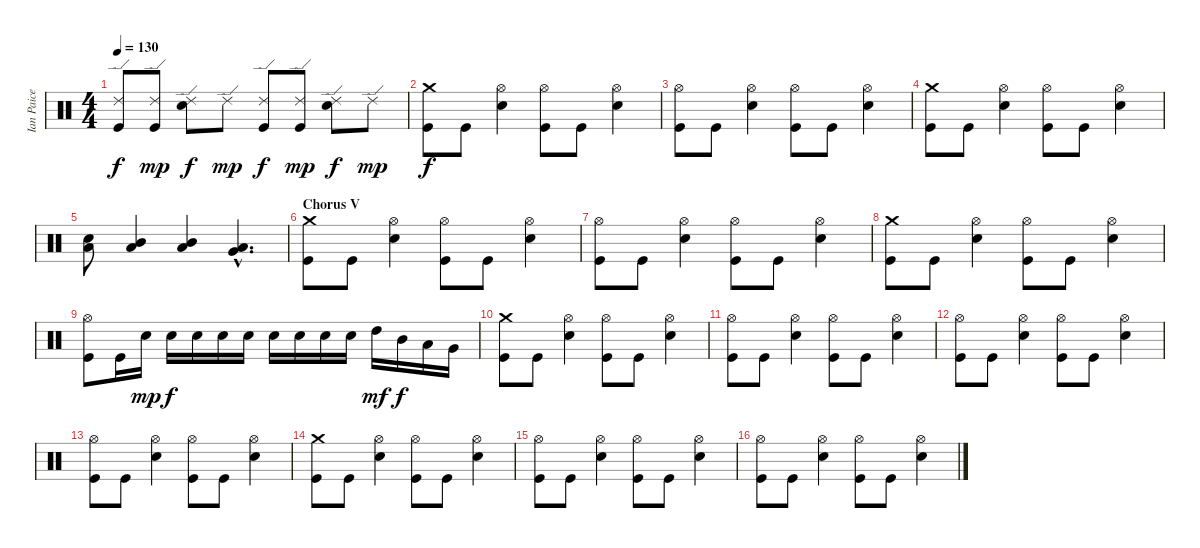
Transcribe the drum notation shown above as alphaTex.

\track ("Ian Paice - Drums" "Ian Paice ") {instrument percussion}
\staff {score}
\articulation defaults
\ts (4 4)
\tempo 130
\clef neutral
\ks c
("Ride (edge) 2" "Kick (hit)").8{dy f} ("Ride (edge) 2" "Kick (hit)").8{dy mp} ("Ride (edge) 2" "Snare (hit) 2").8{dy f} "Ride (edge) 2".8{dy mp} ("Ride (edge) 2" "Kick (hit)").8{dy f} ("Ride (edge) 2" "Kick (hit)").8{dy mp} ("Ride (edge) 2" "Snare (hit) 2").8{dy f} "Ride (edge) 2".8{dy mp} |
("Crash medium (hit)" "Kick (hit)").8{dy f} "Kick (hit)".8 ("Hi-Hat (open)" "Snare (hit) 2").4 ("Hi-Hat (open)" "Kick (hit)").8 "Kick (hit)".8 ("Hi-Hat (open)" "Snare (hit) 2").4 |
("Hi-Hat (open)" "Kick (hit)").8 "Kick (hit)".8 ("Hi-Hat (open)" "Snare (hit) 2").4 ("Hi-Hat (open)" "Kick (hit)").8 "Kick (hit)".8 ("Hi-Hat (open)" "Snare (hit) 2").4 |
("Crash medium (hit)" "Kick (hit)").8 "Kick (hit)".8 ("Hi-Hat (open)" "Snare (hit) 2").4 ("Hi-Hat (open)" "Kick (hit)").8 "Kick (hit)".8 ("Hi-Hat (open)" "Snare (hit) 2").4 |
("Low Tom (hit)" "Snare (hit) 2").8 ("Low Tom (hit)" "Mid Tom (hit)").4 ("Mid Tom (hit)" "Low Tom (hit)").4 ("Low Tom (hit)"{hac} "Very Low Tom (hit)"{hac}).4{d} |
\section ("" "Chorus V")
("Crash medium (hit)" "Kick (hit)").8 "Kick (hit)".8 ("Hi-Hat (open)" "Snare (hit) 2").4 ("Hi-Hat (open)" "Kick (hit)").8 "Kick (hit)".8 ("Hi-Hat (open)" "Snare (hit) 2").4 |
("Hi-Hat (open)" "Kick (hit)").8 "Kick (hit)".8 ("Hi-Hat (open)" "Snare (hit) 2").4 ("Hi-Hat (open)" "Kick (hit)").8 "Kick (hit)".8 ("Hi-Hat (open)" "Snare (hit) 2").4 |
("Crash medium (hit)" "Kick (hit)").8 "Kick (hit)".8 ("Hi-Hat (open)" "Snare (hit) 2").4 ("Hi-Hat (open)" "Kick (hit)").8 "Kick (hit)".8 ("Hi-Hat (open)" "Snare (hit) 2").4 |
("Hi-Hat (open)" "Kick (hit)").8 "Kick (hit)".16 "Snare (hit) 2".16{dy mp} "Snare (hit) 2".16{dy f} "Snare (hit) 2".16 "Snare (hit) 2".16 "Snare (hit) 2".16 "Snare (hit) 2".16 "Snare (hit) 2".16 "Snare (hit) 2".16 "Snare (hit) 2".16 "High Tom (hit)".16{dy mf} "Mid Tom (hit)".16{dy f} "Low Tom (hit)".16 "Very Low Tom (hit)".16 |
("Crash medium (hit)" "Kick (hit)").8 "Kick (hit)".8 ("Hi-Hat (open)" "Snare (hit) 2").4 ("Hi-Hat (open)" "Kick (hit)").8 "Kick (hit)".8 ("Hi-Hat (open)" "Snare (hit) 2").4 |
("Hi-Hat (open)" "Kick (hit)").8 "Kick (hit)".8 ("Hi-Hat (open)" "Snare (hit) 2").4 ("Hi-Hat (open)" "Kick (hit)").8 "Kick (hit)".8 ("Hi-Hat (open)" "Snare (hit) 2").4 |
("Hi-Hat (open)" "Kick (hit)").8 "Kick (hit)".8 ("Hi-Hat (open)" "Snare (hit) 2").4 ("Hi-Hat (open)" "Kick (hit)").8 "Kick (hit)".8 ("Hi-Hat (open)" "Snare (hit) 2").4 |
("Hi-Hat (open)" "Kick (hit)").8 "Kick (hit)".8 ("Hi-Hat (open)" "Snare (hit) 2").4 ("Hi-Hat (open)" "Kick (hit)").8 "Kick (hit)".8 ("Hi-Hat (open)" "Snare (hit) 2").4 |
("Crash medium (hit)" "Kick (hit)").8 "Kick (hit)".8 ("Hi-Hat (open)" "Snare (hit) 2").4 ("Hi-Hat (open)" "Kick (hit)").8 "Kick (hit)".8 ("Hi-Hat (open)" "Snare (hit) 2").4 |
("Hi-Hat (open)" "Kick (hit)").8 "Kick (hit)".8 ("Hi-Hat (open)" "Snare (hit) 2").4 ("Hi-Hat (open)" "Kick (hit)").8 "Kick (hit)".8 ("Hi-Hat (open)" "Snare (hit) 2").4 |
("Hi-Hat (open)" "Kick (hit)").8 "Kick (hit)".8 ("Hi-Hat (open)" "Snare (hit) 2").4 ("Hi-Hat (open)" "Kick (hit)").8 "Kick (hit)".8 ("Hi-Hat (open)" "Snare (hit) 2").4
